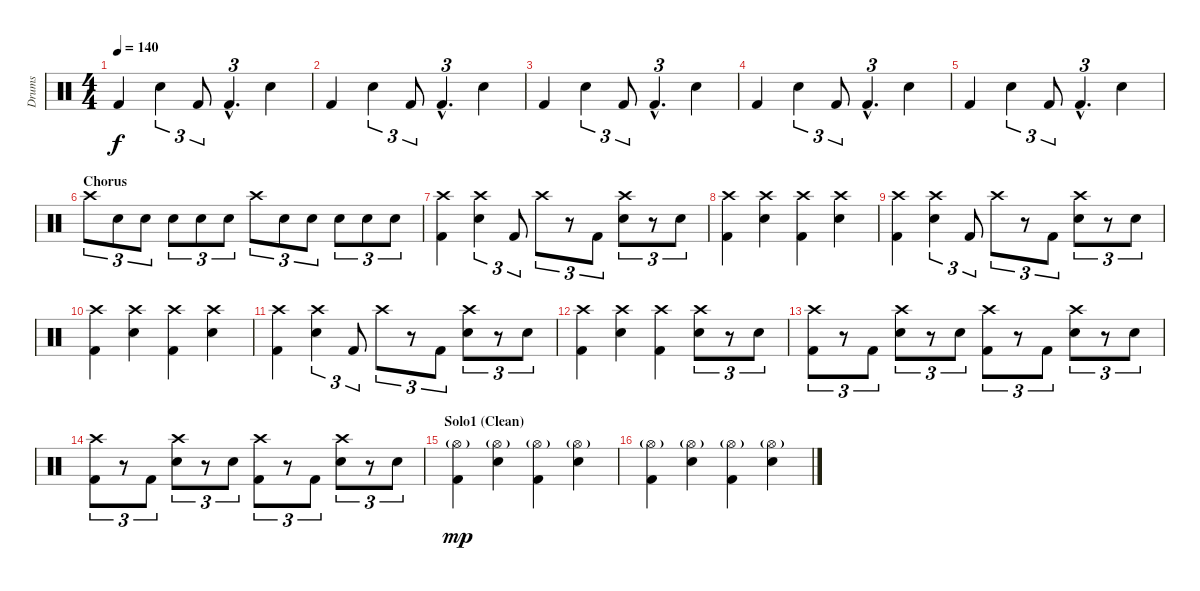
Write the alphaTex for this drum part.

\track ("Drums" "Drums") {instrument percussion}
\staff {score}
\articulation defaults
\ts (4 4)
\tempo 140
\clef neutral
\ks c "Kick (hit) 2".4{dy f} "Snare (hit) 2".4{tu (3 2)} "Kick (hit) 2".8{tu (3 2)} "Kick (hit) 2"{hac}.4{d tu (3 2)} "Snare (hit) 2".4
|
"Kick (hit) 2".4 "Snare (hit) 2".4{tu (3 2)} "Kick (hit) 2".8{tu (3 2)} "Kick (hit) 2"{hac}.4{d tu (3 2)} "Snare (hit) 2".4 |
"Kick (hit) 2".4 "Snare (hit) 2".4{tu (3 2)} "Kick (hit) 2".8{tu (3 2)} "Kick (hit) 2"{hac}.4{d tu (3 2)} "Snare (hit) 2".4 |
"Kick (hit) 2".4 "Snare (hit) 2".4{tu (3 2)} "Kick (hit) 2".8{tu (3 2)} "Kick (hit) 2"{hac}.4{d tu (3 2)} "Snare (hit) 2".4 |
"Kick (hit) 2".4 "Snare (hit) 2".4{tu (3 2)} "Kick (hit) 2".8{tu (3 2)} "Kick (hit) 2"{hac}.4{d tu (3 2)} "Snare (hit) 2".4 |
\section ("" "Chorus")
"Crash high (hit)".8{tu (3 2)} "Snare (hit) 2".8{tu (3 2)} "Snare (hit) 2".8{tu (3 2)} "Snare (hit) 2".8{tu (3 2)} "Snare (hit) 2".8{tu (3 2)} "Snare (hit) 2".8{tu (3 2)} "Crash high (hit)".8{tu (3 2)} "Snare (hit) 2".8{tu (3 2)} "Snare (hit) 2".8{tu (3 2)} "Snare (hit) 2".8{tu (3 2)} "Snare (hit) 2".8{tu (3 2)} "Snare (hit) 2".8{tu (3 2)} |
("Crash high (hit)" "Kick (hit) 2").4 ("Crash high (hit)" "Snare (hit) 2").4{tu (3 2)} "Kick (hit) 2".8{tu (3 2)} "Crash high (hit)".8{tu (3 2)} r.8{tu (3 2)} "Kick (hit) 2".8{tu (3 2)} ("Crash high (hit)" "Snare (hit) 2").8{tu (3 2)} r.8{tu (3 2)} "Snare (hit) 2".8{tu (3 2)} |
("Crash high (hit)" "Kick (hit) 2").4 ("Crash high (hit)" "Snare (hit) 2").4 ("Crash high (hit)" "Kick (hit) 2").4 ("Crash high (hit)" "Snare (hit) 2").4 |
("Crash high (hit)" "Kick (hit) 2").4 ("Crash high (hit)" "Snare (hit) 2").4{tu (3 2)} "Kick (hit) 2".8{tu (3 2)} "Crash high (hit)".8{tu (3 2)} r.8{tu (3 2)} "Kick (hit) 2".8{tu (3 2)} ("Crash high (hit)" "Snare (hit) 2").8{tu (3 2)} r.8{tu (3 2)} "Snare (hit) 2".8{tu (3 2)} |
("Crash high (hit)" "Kick (hit) 2").4 ("Crash high (hit)" "Snare (hit) 2").4 ("Crash high (hit)" "Kick (hit) 2").4 ("Crash high (hit)" "Snare (hit) 2").4 |
("Crash high (hit)" "Kick (hit) 2").4 ("Crash high (hit)" "Snare (hit) 2").4{tu (3 2)} "Kick (hit) 2".8{tu (3 2)} "Crash high (hit)".8{tu (3 2)} r.8{tu (3 2)} "Kick (hit) 2".8{tu (3 2)} ("Crash high (hit)" "Snare (hit) 2").8{tu (3 2)} r.8{tu (3 2)} "Snare (hit) 2".8{tu (3 2)} |
("Crash high (hit)" "Kick (hit) 2").4 ("Crash high (hit)" "Snare (hit) 2").4 ("Crash high (hit)" "Kick (hit) 2").4 ("Crash high (hit)" "Snare (hit) 2").8{tu (3 2)} r.8{tu (3 2)} "Snare (hit) 2".8{tu (3 2)} |
("Crash high (hit)" "Kick (hit) 2").8{tu (3 2)} r.8{tu (3 2)} "Kick (hit) 2".8{tu (3 2)} ("Crash high (hit)" "Snare (hit) 2").8{tu (3 2)} r.8{tu (3 2)} "Snare (hit) 2".8{tu (3 2)} ("Crash high (hit)" "Kick (hit) 2").8{tu (3 2)} r.8{tu (3 2)} "Kick (hit) 2".8{tu (3 2)} ("Crash high (hit)" "Snare (hit) 2").8{tu (3 2)} r.8{tu (3 2)} "Snare (hit) 2".8{tu (3 2)} |
("Crash high (hit)" "Kick (hit) 2").8{tu (3 2)} r.8{tu (3 2)} "Kick (hit) 2".8{tu (3 2)} ("Crash high (hit)" "Snare (hit) 2").8{tu (3 2)} r.8{tu (3 2)} "Snare (hit) 2".8{tu (3 2)} ("Crash high (hit)" "Kick (hit) 2").8{tu (3 2)} r.8{tu (3 2)} "Kick (hit) 2".8{tu (3 2)} ("Crash high (hit)" "Snare (hit) 2").8{tu (3 2)} r.8{tu (3 2)} "Snare (hit) 2".8{tu (3 2)} |
\section ("" "Solo1 (Clean)")
("Hi-Hat (open)"{g} "Kick (hit) 2").4{dy mp} ("Hi-Hat (open)"{g} "Snare (hit) 2").4 ("Hi-Hat (open)"{g} "Kick (hit) 2").4 ("Hi-Hat (open)"{g} "Snare (hit) 2").4 |
("Hi-Hat (open)"{g} "Kick (hit) 2").4 ("Hi-Hat (open)"{g} "Snare (hit) 2").4 ("Hi-Hat (open)"{g} "Kick (hit) 2").4 ("Hi-Hat (open)"{g} "Snare (hit) 2").4
